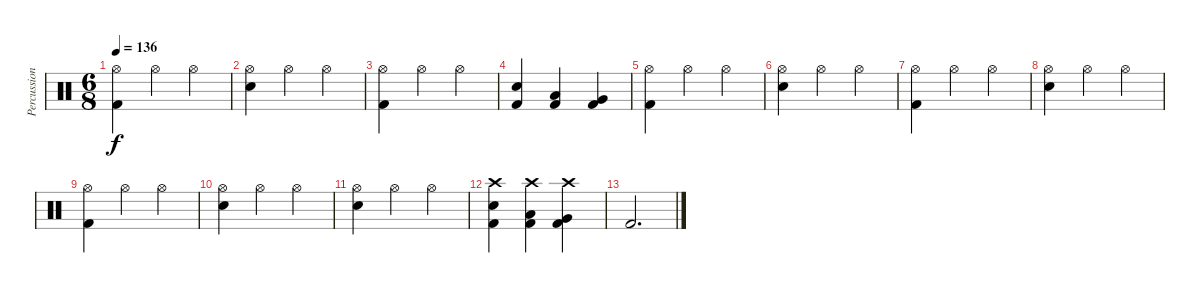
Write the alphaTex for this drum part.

\track ("Percussion" "Percussion") {instrument percussion}
\staff {score}
\articulation defaults
\ts (6 8)
\tempo 136
\clef neutral
\ks c
("Hi-Hat (open)" "Kick (hit) 2").4{dy f} "Hi-Hat (open)".4 "Hi-Hat (open)".4 |
("Hi-Hat (open)" "Snare (hit) 2").4 "Hi-Hat (open)".4 "Hi-Hat (open)".4 |
("Hi-Hat (open)" "Kick (hit) 2").4 "Hi-Hat (open)".4 "Hi-Hat (open)".4 |
("Snare (hit) 2" "Kick (hit) 2").4 ("Low Tom (hit)" "Kick (hit) 2").4 ("Very Low Tom (hit)" "Kick (hit) 2").4 |
("Hi-Hat (open)" "Kick (hit) 2").4 "Hi-Hat (open)".4 "Hi-Hat (open)".4 |
("Hi-Hat (open)" "Snare (hit) 2").4 "Hi-Hat (open)".4 "Hi-Hat (open)".4 |
("Hi-Hat (open)" "Kick (hit) 2").4 "Hi-Hat (open)".4 "Hi-Hat (open)".4 |
("Hi-Hat (open)" "Snare (hit) 2").4 "Hi-Hat (open)".4 "Hi-Hat (open)".4 |
("Hi-Hat (open)" "Kick (hit) 2").4 "Hi-Hat (open)".4 "Hi-Hat (open)".4 |
("Hi-Hat (open)" "Snare (hit) 2").4 "Hi-Hat (open)".4 "Hi-Hat (open)".4 |
("Hi-Hat (open)" "Snare (hit) 2").4 "Hi-Hat (open)".4 "Hi-Hat (open)".4 |
("Crash high (hit)" "Snare (hit) 2" "Kick (hit) 2").4 ("Crash high (hit)" "Low Tom (hit)" "Kick (hit) 2").4 ("Crash high (hit)" "Very Low Tom (hit)" "Kick (hit) 2").4 |
"Kick (hit) 2".2{d}
